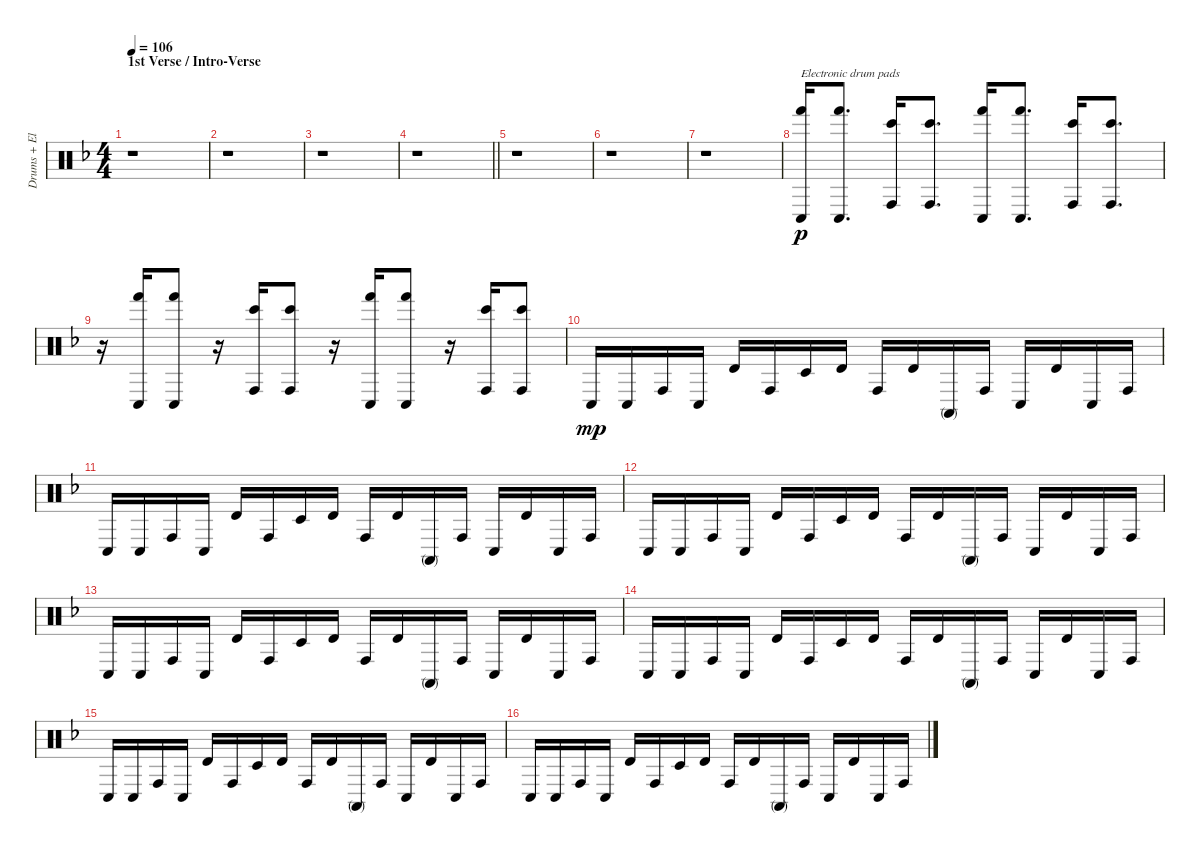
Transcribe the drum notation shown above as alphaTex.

\track ("Drums + Electronic drum pads" "Drums + El") {instrument percussion}
\staff {score}
\articulation defaults
\ts (4 4)
\section ("" "1st Verse / Intro-Verse")
\tempo 106
\clef neutral
\ks dminor
r.1{dy p} |
r.1 |
r.1 |
\barLineRight lightlight
r.1 |
r.1 |
r.1 |
r.1 |
("Hand (hit)" "Conga low (hit)").16{txt "Electronic drum pads"} ("Hand (hit)" "Conga low (hit)").8{d} ("Bongo High (hit)" "Conga high (hit)").16 ("Bongo High (hit)" "Conga high (hit)").8{d} ("Hand (hit)" "Conga low (hit)").16 ("Hand (hit)" "Conga low (hit)").8{d} ("Bongo High (hit)" "Conga high (hit)").16 ("Bongo High (hit)" "Conga high (hit)").8{d} |
r.16 ("Hand (hit)" "Conga low (hit)").16 ("Hand (hit)" "Conga low (hit)").8 r.16 ("Bongo High (hit)" "Conga high (hit)").16 ("Bongo High (hit)" "Conga high (hit)").8 r.16 ("Hand (hit)" "Conga low (hit)").16 ("Hand (hit)" "Conga low (hit)").8 r.16 ("Bongo High (hit)" "Conga high (hit)").16 ("Bongo High (hit)" "Conga high (hit)").8 |
"Conga low (hit)".16{dy mp} "Conga low (hit)".16 "Conga high (hit)".16 "Conga low (hit)".16 "Timbale high (hit)".16 "Conga high (hit)".16 "Timbale low (hit)".16 "Timbale high (hit)".16 "Conga high (hit)".16 "Timbale high (hit)".16 "Conga high (mute)".16 "Conga high (hit)".16 "Conga low (hit)".16 "Timbale high (hit)".16 "Conga low (hit)".16 "Conga high (hit)".16 |
"Conga low (hit)".16 "Conga low (hit)".16 "Conga high (hit)".16 "Conga low (hit)".16 "Timbale high (hit)".16 "Conga high (hit)".16 "Timbale low (hit)".16 "Timbale high (hit)".16 "Conga high (hit)".16 "Timbale high (hit)".16 "Conga high (mute)".16 "Conga high (hit)".16 "Conga low (hit)".16 "Timbale high (hit)".16 "Conga low (hit)".16 "Conga high (hit)".16 |
"Conga low (hit)".16 "Conga low (hit)".16 "Conga high (hit)".16 "Conga low (hit)".16 "Timbale high (hit)".16 "Conga high (hit)".16 "Timbale low (hit)".16 "Timbale high (hit)".16 "Conga high (hit)".16 "Timbale high (hit)".16 "Conga high (mute)".16 "Conga high (hit)".16 "Conga low (hit)".16 "Timbale high (hit)".16 "Conga low (hit)".16 "Conga high (hit)".16 |
"Conga low (hit)".16 "Conga low (hit)".16 "Conga high (hit)".16 "Conga low (hit)".16 "Timbale high (hit)".16 "Conga high (hit)".16 "Timbale low (hit)".16 "Timbale high (hit)".16 "Conga high (hit)".16 "Timbale high (hit)".16 "Conga high (mute)".16 "Conga high (hit)".16 "Conga low (hit)".16 "Timbale high (hit)".16 "Conga low (hit)".16 "Conga high (hit)".16 |
"Conga low (hit)".16 "Conga low (hit)".16 "Conga high (hit)".16 "Conga low (hit)".16 "Timbale high (hit)".16 "Conga high (hit)".16 "Timbale low (hit)".16 "Timbale high (hit)".16 "Conga high (hit)".16 "Timbale high (hit)".16 "Conga high (mute)".16 "Conga high (hit)".16 "Conga low (hit)".16 "Timbale high (hit)".16 "Conga low (hit)".16 "Conga high (hit)".16 |
"Conga low (hit)".16 "Conga low (hit)".16 "Conga high (hit)".16 "Conga low (hit)".16 "Timbale high (hit)".16 "Conga high (hit)".16 "Timbale low (hit)".16 "Timbale high (hit)".16 "Conga high (hit)".16 "Timbale high (hit)".16 "Conga high (mute)".16 "Conga high (hit)".16 "Conga low (hit)".16 "Timbale high (hit)".16 "Conga low (hit)".16 "Conga high (hit)".16 |
"Conga low (hit)".16 "Conga low (hit)".16 "Conga high (hit)".16 "Conga low (hit)".16 "Timbale high (hit)".16 "Conga high (hit)".16 "Timbale low (hit)".16 "Timbale high (hit)".16 "Conga high (hit)".16 "Timbale high (hit)".16 "Conga high (mute)".16 "Conga high (hit)".16 "Conga low (hit)".16 "Timbale high (hit)".16 "Conga low (hit)".16 "Conga high (hit)".16
